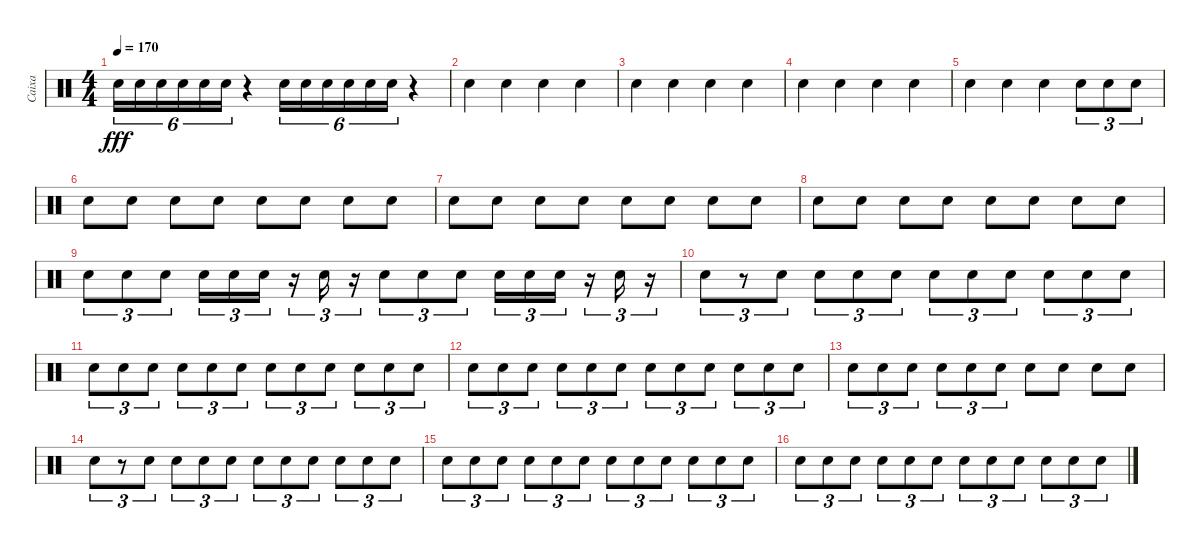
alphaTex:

\track ("Caixa" "Caixa") {instrument percussion}
\staff {score}
\articulation defaults
\ts (4 4)
\tempo 170
\clef neutral
\ks c "Electric Snare (hit)".16{tu (6 4) dy fff} "Electric Snare (hit)".16{tu (6 4)} "Electric Snare (hit)".16{tu (6 4)} "Electric Snare (hit)".16{tu (6 4)} "Electric Snare (hit)".16{tu (6 4)} "Electric Snare (hit)".16{tu (6 4)}
r.4 "Electric Snare (hit)".16{tu (6 4)} "Electric Snare (hit)".16{tu (6 4)} "Electric Snare (hit)".16{tu (6 4)} "Electric Snare (hit)".16{tu (6 4)} "Electric Snare (hit)".16{tu (6 4)} "Electric Snare (hit)".16{tu (6 4)} r.4 |
"Electric Snare (hit)".4 "Electric Snare (hit)".4 "Electric Snare (hit)".4 "Electric Snare (hit)".4 |
"Electric Snare (hit)".4 "Electric Snare (hit)".4 "Electric Snare (hit)".4 "Electric Snare (hit)".4 |
"Electric Snare (hit)".4 "Electric Snare (hit)".4 "Electric Snare (hit)".4 "Electric Snare (hit)".4 |
"Electric Snare (hit)".4 "Electric Snare (hit)".4 "Electric Snare (hit)".4 "Electric Snare (hit)".8{tu (3 2)} "Electric Snare (hit)".8{tu (3 2)} "Electric Snare (hit)".8{tu (3 2)} |
"Electric Snare (hit)".8 "Electric Snare (hit)".8 "Electric Snare (hit)".8 "Electric Snare (hit)".8 "Electric Snare (hit)".8 "Electric Snare (hit)".8 "Electric Snare (hit)".8 "Electric Snare (hit)".8 |
"Electric Snare (hit)".8 "Electric Snare (hit)".8 "Electric Snare (hit)".8 "Electric Snare (hit)".8 "Electric Snare (hit)".8 "Electric Snare (hit)".8 "Electric Snare (hit)".8 "Electric Snare (hit)".8 |
"Electric Snare (hit)".8 "Electric Snare (hit)".8 "Electric Snare (hit)".8 "Electric Snare (hit)".8 "Electric Snare (hit)".8 "Electric Snare (hit)".8 "Electric Snare (hit)".8 "Electric Snare (hit)".8 |
"Electric Snare (hit)".8{tu (3 2)} "Electric Snare (hit)".8{tu (3 2)} "Electric Snare (hit)".8{tu (3 2)} "Electric Snare (hit)".16{tu (3 2)} "Electric Snare (hit)".16{tu (3 2)} "Electric Snare (hit)".16{tu (3 2)} r.16{tu (3 2)} "Electric Snare (hit)".16{tu (3 2)} r.16{tu (3 2)} "Electric Snare (hit)".8{tu (3 2)} "Electric Snare (hit)".8{tu (3 2)} "Electric Snare (hit)".8{tu (3 2)} "Electric Snare (hit)".16{tu (3 2)} "Electric Snare (hit)".16{tu (3 2)} "Electric Snare (hit)".16{tu (3 2)} r.16{tu (3 2)} "Electric Snare (hit)".16{tu (3 2)} r.16{tu (3 2)} |
"Electric Snare (hit)".8{tu (3 2)} r.8{tu (3 2)} "Electric Snare (hit)".8{tu (3 2)} "Electric Snare (hit)".8{tu (3 2)} "Electric Snare (hit)".8{tu (3 2)} "Electric Snare (hit)".8{tu (3 2)} "Electric Snare (hit)".8{tu (3 2)} "Electric Snare (hit)".8{tu (3 2)} "Electric Snare (hit)".8{tu (3 2)} "Electric Snare (hit)".8{tu (3 2)} "Electric Snare (hit)".8{tu (3 2)} "Electric Snare (hit)".8{tu (3 2)} |
"Electric Snare (hit)".8{tu (3 2)} "Electric Snare (hit)".8{tu (3 2)} "Electric Snare (hit)".8{tu (3 2)} "Electric Snare (hit)".8{tu (3 2)} "Electric Snare (hit)".8{tu (3 2)} "Electric Snare (hit)".8{tu (3 2)} "Electric Snare (hit)".8{tu (3 2)} "Electric Snare (hit)".8{tu (3 2)} "Electric Snare (hit)".8{tu (3 2)} "Electric Snare (hit)".8{tu (3 2)} "Electric Snare (hit)".8{tu (3 2)} "Electric Snare (hit)".8{tu (3 2)} |
"Electric Snare (hit)".8{tu (3 2)} "Electric Snare (hit)".8{tu (3 2)} "Electric Snare (hit)".8{tu (3 2)} "Electric Snare (hit)".8{tu (3 2)} "Electric Snare (hit)".8{tu (3 2)} "Electric Snare (hit)".8{tu (3 2)} "Electric Snare (hit)".8{tu (3 2)} "Electric Snare (hit)".8{tu (3 2)} "Electric Snare (hit)".8{tu (3 2)} "Electric Snare (hit)".8{tu (3 2)} "Electric Snare (hit)".8{tu (3 2)} "Electric Snare (hit)".8{tu (3 2)} |
"Electric Snare (hit)".8{tu (3 2)} "Electric Snare (hit)".8{tu (3 2)} "Electric Snare (hit)".8{tu (3 2)} "Electric Snare (hit)".8{tu (3 2)} "Electric Snare (hit)".8{tu (3 2)} "Electric Snare (hit)".8{tu (3 2)} "Electric Snare (hit)".8 "Electric Snare (hit)".8 "Electric Snare (hit)".8 "Electric Snare (hit)".8 |
"Electric Snare (hit)".8{tu (3 2)} r.8{tu (3 2)} "Electric Snare (hit)".8{tu (3 2)} "Electric Snare (hit)".8{tu (3 2)} "Electric Snare (hit)".8{tu (3 2)} "Electric Snare (hit)".8{tu (3 2)} "Electric Snare (hit)".8{tu (3 2)} "Electric Snare (hit)".8{tu (3 2)} "Electric Snare (hit)".8{tu (3 2)} "Electric Snare (hit)".8{tu (3 2)} "Electric Snare (hit)".8{tu (3 2)} "Electric Snare (hit)".8{tu (3 2)} |
"Electric Snare (hit)".8{tu (3 2)} "Electric Snare (hit)".8{tu (3 2)} "Electric Snare (hit)".8{tu (3 2)} "Electric Snare (hit)".8{tu (3 2)} "Electric Snare (hit)".8{tu (3 2)} "Electric Snare (hit)".8{tu (3 2)} "Electric Snare (hit)".8{tu (3 2)} "Electric Snare (hit)".8{tu (3 2)} "Electric Snare (hit)".8{tu (3 2)} "Electric Snare (hit)".8{tu (3 2)} "Electric Snare (hit)".8{tu (3 2)} "Electric Snare (hit)".8{tu (3 2)} |
"Electric Snare (hit)".8{tu (3 2)} "Electric Snare (hit)".8{tu (3 2)} "Electric Snare (hit)".8{tu (3 2)} "Electric Snare (hit)".8{tu (3 2)} "Electric Snare (hit)".8{tu (3 2)} "Electric Snare (hit)".8{tu (3 2)} "Electric Snare (hit)".8{tu (3 2)} "Electric Snare (hit)".8{tu (3 2)} "Electric Snare (hit)".8{tu (3 2)} "Electric Snare (hit)".8{tu (3 2)} "Electric Snare (hit)".8{tu (3 2)} "Electric Snare (hit)".8{tu (3 2)}
